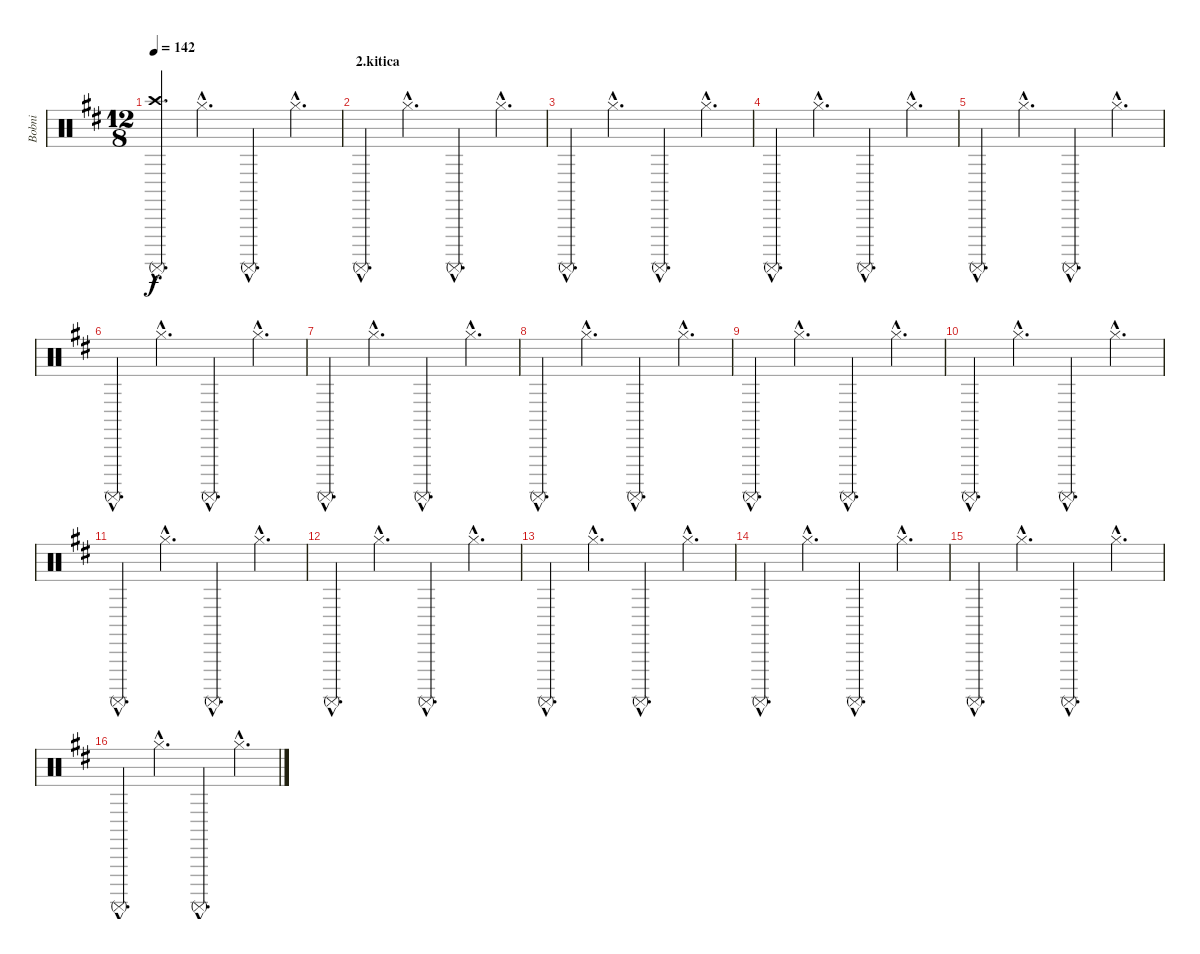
\track ("Bobni" "Bobni") {instrument percussion}
\staff {score}
\articulation defaults
\ts (12 8)
\tempo 142
\clef neutral
\ks d
("Surdo (mute)"{hac} "Crash high (hit)"{hac}).4{d dy f} "Hi-Hat (closed)"{hac}.4{d} "Surdo (mute)"{hac}.4{d} "Hi-Hat (closed)"{hac}.4{d} |
\section ("" "2.kitica")
"Surdo (mute)"{hac}.4{d} "Hi-Hat (closed)"{hac}.4{d} "Surdo (mute)"{hac}.4{d} "Hi-Hat (closed)"{hac}.4{d} |
"Surdo (mute)"{hac}.4{d} "Hi-Hat (closed)"{hac}.4{d} "Surdo (mute)"{hac}.4{d} "Hi-Hat (closed)"{hac}.4{d} |
"Surdo (mute)"{hac}.4{d} "Hi-Hat (closed)"{hac}.4{d} "Surdo (mute)"{hac}.4{d} "Hi-Hat (closed)"{hac}.4{d} |
"Surdo (mute)"{hac}.4{d} "Hi-Hat (closed)"{hac}.4{d} "Surdo (mute)"{hac}.4{d} "Hi-Hat (closed)"{hac}.4{d} |
"Surdo (mute)"{hac}.4{d} "Hi-Hat (closed)"{hac}.4{d} "Surdo (mute)"{hac}.4{d} "Hi-Hat (closed)"{hac}.4{d} |
"Surdo (mute)"{hac}.4{d} "Hi-Hat (closed)"{hac}.4{d} "Surdo (mute)"{hac}.4{d} "Hi-Hat (closed)"{hac}.4{d} |
"Surdo (mute)"{hac}.4{d} "Hi-Hat (closed)"{hac}.4{d} "Surdo (mute)"{hac}.4{d} "Hi-Hat (closed)"{hac}.4{d} |
"Surdo (mute)"{hac}.4{d} "Hi-Hat (closed)"{hac}.4{d} "Surdo (mute)"{hac}.4{d} "Hi-Hat (closed)"{hac}.4{d} |
"Surdo (mute)"{hac}.4{d} "Hi-Hat (closed)"{hac}.4{d} "Surdo (mute)"{hac}.4{d} "Hi-Hat (closed)"{hac}.4{d} |
"Surdo (mute)"{hac}.4{d} "Hi-Hat (closed)"{hac}.4{d} "Surdo (mute)"{hac}.4{d} "Hi-Hat (closed)"{hac}.4{d} |
"Surdo (mute)"{hac}.4{d} "Hi-Hat (closed)"{hac}.4{d} "Surdo (mute)"{hac}.4{d} "Hi-Hat (closed)"{hac}.4{d} |
"Surdo (mute)"{hac}.4{d} "Hi-Hat (closed)"{hac}.4{d} "Surdo (mute)"{hac}.4{d} "Hi-Hat (closed)"{hac}.4{d} |
"Surdo (mute)"{hac}.4{d} "Hi-Hat (closed)"{hac}.4{d} "Surdo (mute)"{hac}.4{d} "Hi-Hat (closed)"{hac}.4{d} |
"Surdo (mute)"{hac}.4{d} "Hi-Hat (closed)"{hac}.4{d} "Surdo (mute)"{hac}.4{d} "Hi-Hat (closed)"{hac}.4{d} |
"Surdo (mute)"{hac}.4{d} "Hi-Hat (closed)"{hac}.4{d} "Surdo (mute)"{hac}.4{d} "Hi-Hat (closed)"{hac}.4{d}
